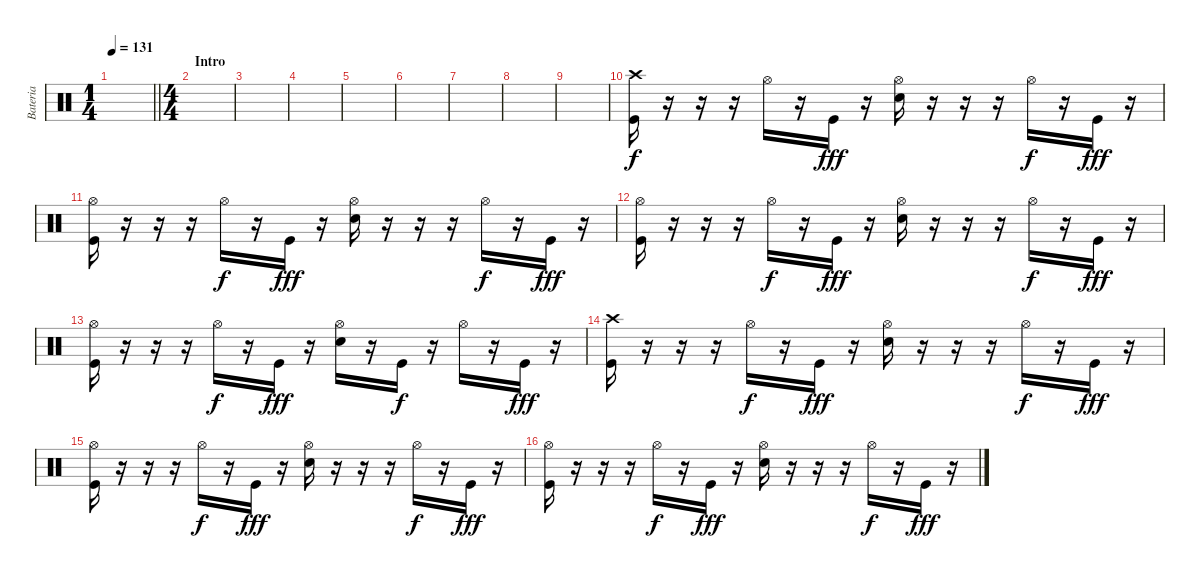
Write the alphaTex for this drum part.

\track ("Bateria" "Bateria") {instrument percussion}
\staff {score}
\articulation defaults
\ts (1 4)
\tempo 131
\clef neutral
\barLineRight lightlight
\ks c
|
\ts (4 4)
\section ("" "Intro")
|
|
|
|
|
|
|
|
("Crash high (hit)" "Kick (hit)").16 r.16 r.16 r.16 "Hi-Hat (open)".16{dy f} r.16 "Kick (hit)".16{dy fff} r.16 ("Hi-Hat (open)" "Electric Snare (hit)").16 r.16 r.16 r.16 "Hi-Hat (open)".16{dy f} r.16 "Kick (hit)".16{dy fff} r.16 |
("Hi-Hat (open)" "Kick (hit)").16 r.16 r.16 r.16 "Hi-Hat (open)".16{dy f} r.16 "Kick (hit)".16{dy fff} r.16 ("Hi-Hat (open)" "Electric Snare (hit)").16 r.16 r.16 r.16 "Hi-Hat (open)".16{dy f} r.16 "Kick (hit)".16{dy fff} r.16 |
("Hi-Hat (open)" "Kick (hit)").16 r.16 r.16 r.16 "Hi-Hat (open)".16{dy f} r.16 "Kick (hit)".16{dy fff} r.16 ("Hi-Hat (open)" "Electric Snare (hit)").16 r.16 r.16 r.16 "Hi-Hat (open)".16{dy f} r.16 "Kick (hit)".16{dy fff} r.16 |
("Hi-Hat (open)" "Kick (hit)").16 r.16 r.16 r.16 "Hi-Hat (open)".16{dy f} r.16 "Kick (hit)".16{dy fff} r.16 ("Hi-Hat (open)" "Electric Snare (hit)").16 r.16 "Kick (hit)".16{dy f} r.16 "Hi-Hat (open)".16 r.16 "Kick (hit)".16{dy fff} r.16 |
("Crash high (hit)" "Kick (hit)").16 r.16 r.16 r.16 "Hi-Hat (open)".16{dy f} r.16 "Kick (hit)".16{dy fff} r.16 ("Hi-Hat (open)" "Electric Snare (hit)").16 r.16 r.16 r.16 "Hi-Hat (open)".16{dy f} r.16 "Kick (hit)".16{dy fff} r.16 |
("Hi-Hat (open)" "Kick (hit)").16 r.16 r.16 r.16 "Hi-Hat (open)".16{dy f} r.16 "Kick (hit)".16{dy fff} r.16 ("Hi-Hat (open)" "Electric Snare (hit)").16 r.16 r.16 r.16 "Hi-Hat (open)".16{dy f} r.16 "Kick (hit)".16{dy fff} r.16 |
("Hi-Hat (open)" "Kick (hit)").16 r.16 r.16 r.16 "Hi-Hat (open)".16{dy f} r.16 "Kick (hit)".16{dy fff} r.16 ("Hi-Hat (open)" "Electric Snare (hit)").16 r.16 r.16 r.16 "Hi-Hat (open)".16{dy f} r.16 "Kick (hit)".16{dy fff} r.16
